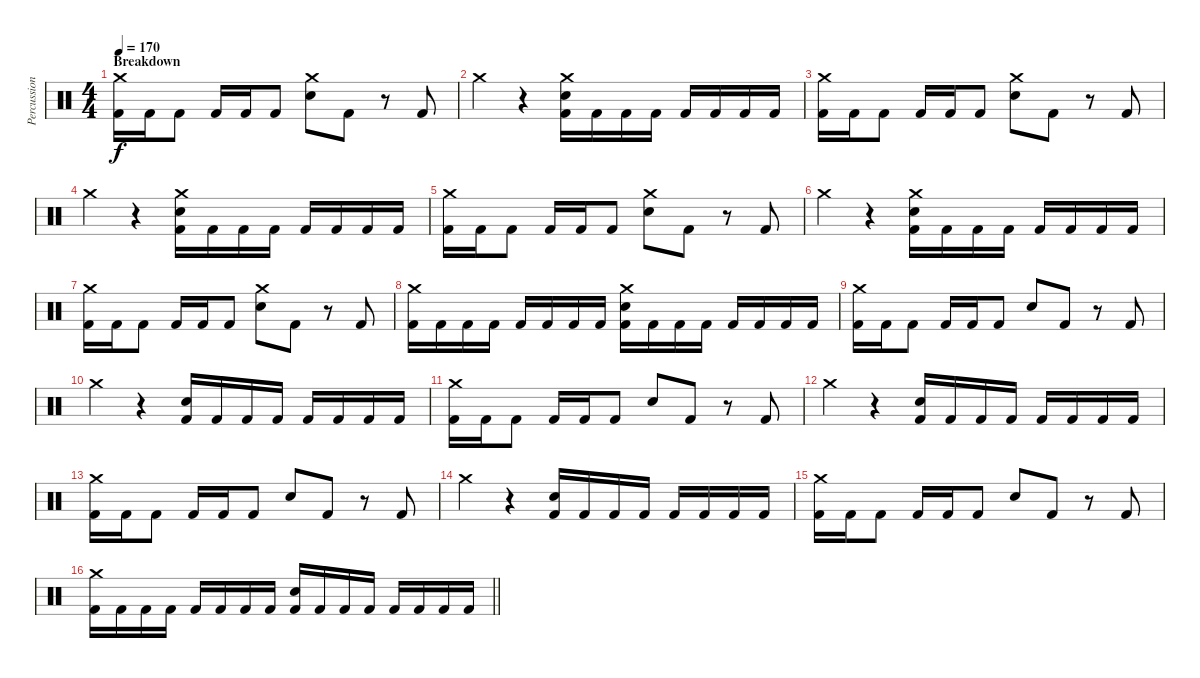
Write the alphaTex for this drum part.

\track ("Percussion" "Percussion") {instrument percussion}
\staff {score}
\articulation defaults
\ts (4 4)
\section ("" "Breakdown")
\tempo 170
\clef neutral
\ks c
("Crash medium (hit)" "Kick (hit) 2").16{dy f} "Kick (hit) 2".16 "Kick (hit) 2".8 "Kick (hit) 2".16 "Kick (hit) 2".16 "Kick (hit) 2".8 ("Crash medium (hit)" "Electric Snare (hit)").8 "Kick (hit) 2".8 r.8 "Kick (hit) 2".8 |
"Crash medium (hit)".4 r.4 ("Crash medium (hit)" "Electric Snare (hit)" "Kick (hit) 2").16 "Kick (hit) 2".16 "Kick (hit) 2".16 "Kick (hit) 2".16 "Kick (hit) 2".16 "Kick (hit) 2".16 "Kick (hit) 2".16 "Kick (hit) 2".16 |
("Crash medium (hit)" "Kick (hit) 2").16 "Kick (hit) 2".16 "Kick (hit) 2".8 "Kick (hit) 2".16 "Kick (hit) 2".16 "Kick (hit) 2".8 ("Crash medium (hit)" "Electric Snare (hit)").8 "Kick (hit) 2".8 r.8 "Kick (hit) 2".8 |
"Crash medium (hit)".4 r.4 ("Crash medium (hit)" "Electric Snare (hit)" "Kick (hit) 2").16 "Kick (hit) 2".16 "Kick (hit) 2".16 "Kick (hit) 2".16 "Kick (hit) 2".16 "Kick (hit) 2".16 "Kick (hit) 2".16 "Kick (hit) 2".16 |
("Crash medium (hit)" "Kick (hit) 2").16 "Kick (hit) 2".16 "Kick (hit) 2".8 "Kick (hit) 2".16 "Kick (hit) 2".16 "Kick (hit) 2".8 ("Crash medium (hit)" "Electric Snare (hit)").8 "Kick (hit) 2".8 r.8 "Kick (hit) 2".8 |
"Crash medium (hit)".4 r.4 ("Crash medium (hit)" "Electric Snare (hit)" "Kick (hit) 2").16 "Kick (hit) 2".16 "Kick (hit) 2".16 "Kick (hit) 2".16 "Kick (hit) 2".16 "Kick (hit) 2".16 "Kick (hit) 2".16 "Kick (hit) 2".16 |
("Crash medium (hit)" "Kick (hit) 2").16 "Kick (hit) 2".16 "Kick (hit) 2".8 "Kick (hit) 2".16 "Kick (hit) 2".16 "Kick (hit) 2".8 ("Crash medium (hit)" "Electric Snare (hit)").8 "Kick (hit) 2".8 r.8 "Kick (hit) 2".8 |
("Crash medium (hit)" "Kick (hit) 2").16 "Kick (hit) 2".16 "Kick (hit) 2".16 "Kick (hit) 2".16 "Kick (hit) 2".16 "Kick (hit) 2".16 "Kick (hit) 2".16 "Kick (hit) 2".16 ("Crash medium (hit)" "Electric Snare (hit)" "Kick (hit) 2").16 "Kick (hit) 2".16 "Kick (hit) 2".16 "Kick (hit) 2".16 "Kick (hit) 2".16 "Kick (hit) 2".16 "Kick (hit) 2".16 "Kick (hit) 2".16 |
("Crash medium (hit)" "Kick (hit) 2").16 "Kick (hit) 2".16 "Kick (hit) 2".8 "Kick (hit) 2".16 "Kick (hit) 2".16 "Kick (hit) 2".8 "Electric Snare (hit)".8 "Kick (hit) 2".8 r.8 "Kick (hit) 2".8 |
"Crash medium (hit)".4 r.4 ("Electric Snare (hit)" "Kick (hit) 2").16 "Kick (hit) 2".16 "Kick (hit) 2".16 "Kick (hit) 2".16 "Kick (hit) 2".16 "Kick (hit) 2".16 "Kick (hit) 2".16 "Kick (hit) 2".16 |
("Crash medium (hit)" "Kick (hit) 2").16 "Kick (hit) 2".16 "Kick (hit) 2".8 "Kick (hit) 2".16 "Kick (hit) 2".16 "Kick (hit) 2".8 "Electric Snare (hit)".8 "Kick (hit) 2".8 r.8 "Kick (hit) 2".8 |
"Crash medium (hit)".4 r.4 ("Electric Snare (hit)" "Kick (hit) 2").16 "Kick (hit) 2".16 "Kick (hit) 2".16 "Kick (hit) 2".16 "Kick (hit) 2".16 "Kick (hit) 2".16 "Kick (hit) 2".16 "Kick (hit) 2".16 |
("Crash medium (hit)" "Kick (hit) 2").16 "Kick (hit) 2".16 "Kick (hit) 2".8 "Kick (hit) 2".16 "Kick (hit) 2".16 "Kick (hit) 2".8 "Electric Snare (hit)".8 "Kick (hit) 2".8 r.8 "Kick (hit) 2".8 |
"Crash medium (hit)".4 r.4 ("Electric Snare (hit)" "Kick (hit) 2").16 "Kick (hit) 2".16 "Kick (hit) 2".16 "Kick (hit) 2".16 "Kick (hit) 2".16 "Kick (hit) 2".16 "Kick (hit) 2".16 "Kick (hit) 2".16 |
("Crash medium (hit)" "Kick (hit) 2").16 "Kick (hit) 2".16 "Kick (hit) 2".8 "Kick (hit) 2".16 "Kick (hit) 2".16 "Kick (hit) 2".8 "Electric Snare (hit)".8 "Kick (hit) 2".8 r.8 "Kick (hit) 2".8 |
\barLineRight lightlight
("Crash medium (hit)" "Kick (hit) 2").16 "Kick (hit) 2".16 "Kick (hit) 2".16 "Kick (hit) 2".16 "Kick (hit) 2".16 "Kick (hit) 2".16 "Kick (hit) 2".16 "Kick (hit) 2".16 ("Electric Snare (hit)" "Kick (hit) 2").16 "Kick (hit) 2".16 "Kick (hit) 2".16 "Kick (hit) 2".16 "Kick (hit) 2".16 "Kick (hit) 2".16 "Kick (hit) 2".16 "Kick (hit) 2".16
